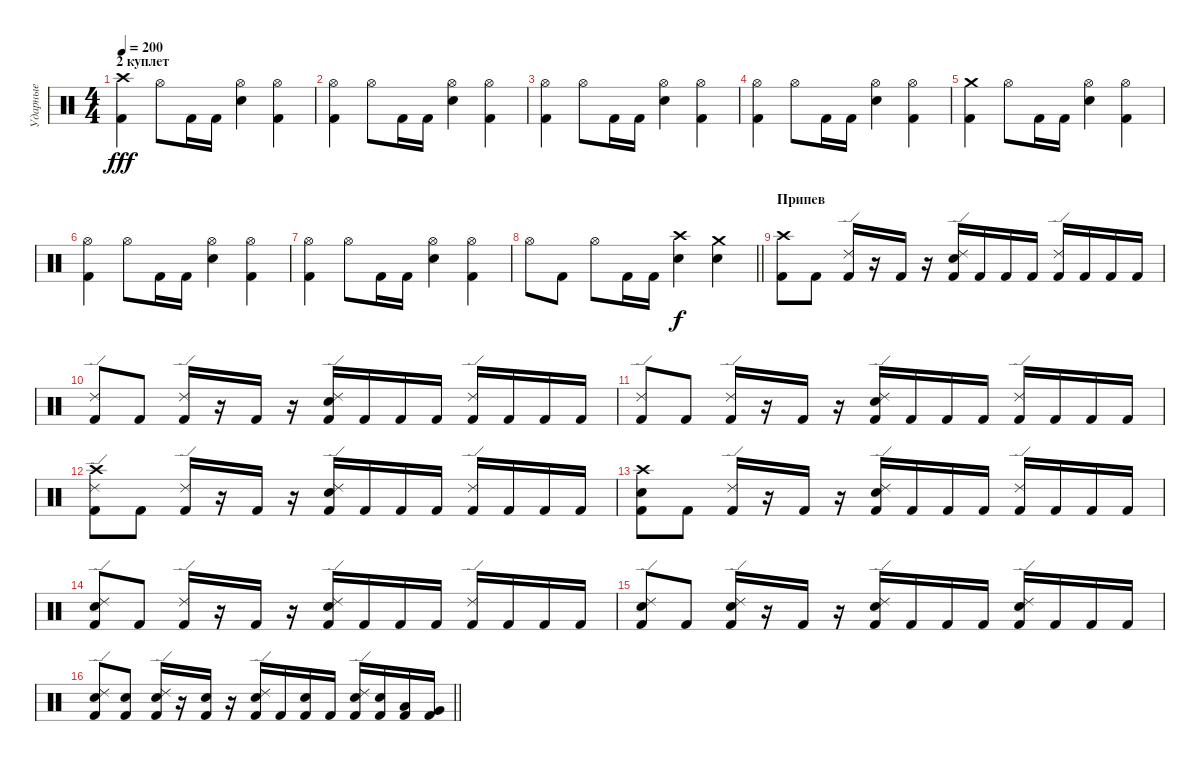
\track ("Ударные" "Ударные") {instrument percussion}
\staff {score}
\articulation defaults
\ts (4 4)
\section ("" "2 куплет")
\tempo 200
\clef neutral
\ks c
("Crash high (hit)" "Kick (hit) 2").4{dy fff} "Hi-Hat (open)".8 "Kick (hit) 2".16 "Kick (hit) 2".16 ("Hi-Hat (open)" "Snare (hit) 2").4 ("Hi-Hat (open)" "Kick (hit) 2").4 |
("Hi-Hat (open)" "Kick (hit) 2").4 "Hi-Hat (open)".8 "Kick (hit) 2".16 "Kick (hit) 2".16 ("Hi-Hat (open)" "Snare (hit) 2").4 ("Hi-Hat (open)" "Kick (hit) 2").4 |
("Hi-Hat (open)" "Kick (hit) 2").4 "Hi-Hat (open)".8 "Kick (hit) 2".16 "Kick (hit) 2".16 ("Hi-Hat (open)" "Snare (hit) 2").4 ("Hi-Hat (open)" "Kick (hit) 2").4 |
("Hi-Hat (open)" "Kick (hit) 2").4 "Hi-Hat (open)".8 "Kick (hit) 2".16 "Kick (hit) 2".16 ("Hi-Hat (open)" "Snare (hit) 2").4 ("Hi-Hat (open)" "Kick (hit) 2").4 |
("Crash medium (hit)" "Kick (hit) 2").4 "Hi-Hat (open)".8 "Kick (hit) 2".16 "Kick (hit) 2".16 ("Hi-Hat (open)" "Snare (hit) 2").4 ("Hi-Hat (open)" "Kick (hit) 2").4 |
("Hi-Hat (open)" "Kick (hit) 2").4 "Hi-Hat (open)".8 "Kick (hit) 2".16 "Kick (hit) 2".16 ("Hi-Hat (open)" "Snare (hit) 2").4 ("Hi-Hat (open)" "Kick (hit) 2").4 |
("Hi-Hat (open)" "Kick (hit) 2").4 "Hi-Hat (open)".8 "Kick (hit) 2".16 "Kick (hit) 2".16 ("Hi-Hat (open)" "Snare (hit) 2").4 ("Hi-Hat (open)" "Kick (hit) 2").4 |
\barLineRight lightlight "Hi-Hat (open)".8 "Kick (hit) 2".8 "Hi-Hat (open)".8 "Kick (hit) 2".16 "Kick (hit) 2".16
("Crash high (hit)" "Snare (hit) 2").4{dy f} ("Crash medium (hit)" "Snare (hit) 2").4 |
\section ("" "Припев")
("Crash high (hit)" "Kick (hit) 2").8 "Kick (hit) 2".8 ("Ride (edge) 2" "Kick (hit) 2").16 r.16 "Kick (hit) 2".16 r.16 ("Snare (hit) 2" "Ride (edge) 2" "Kick (hit) 2").16 "Kick (hit) 2".16 "Kick (hit) 2".16 "Kick (hit) 2".16 ("Ride (edge) 2" "Kick (hit) 2").16 "Kick (hit) 2".16 "Kick (hit) 2".16 "Kick (hit) 2".16 |
("Ride (edge) 2" "Kick (hit) 2").8 "Kick (hit) 2".8 ("Ride (edge) 2" "Kick (hit) 2").16 r.16 "Kick (hit) 2".16 r.16 ("Snare (hit) 2" "Ride (edge) 2" "Kick (hit) 2").16 "Kick (hit) 2".16 "Kick (hit) 2".16 "Kick (hit) 2".16 ("Ride (edge) 2" "Kick (hit) 2").16 "Kick (hit) 2".16 "Kick (hit) 2".16 "Kick (hit) 2".16 |
("Ride (edge) 2" "Kick (hit) 2").8 "Kick (hit) 2".8 ("Ride (edge) 2" "Kick (hit) 2").16 r.16 "Kick (hit) 2".16 r.16 ("Snare (hit) 2" "Ride (edge) 2" "Kick (hit) 2").16 "Kick (hit) 2".16 "Kick (hit) 2".16 "Kick (hit) 2".16 ("Ride (edge) 2" "Kick (hit) 2").16 "Kick (hit) 2".16 "Kick (hit) 2".16 "Kick (hit) 2".16 |
("Crash high (hit)" "Ride (edge) 2" "Kick (hit) 2").8 "Kick (hit) 2".8 ("Ride (edge) 2" "Kick (hit) 2").16 r.16 "Kick (hit) 2".16 r.16 ("Snare (hit) 2" "Ride (edge) 2" "Kick (hit) 2").16 "Kick (hit) 2".16 "Kick (hit) 2".16 "Kick (hit) 2".16 ("Ride (edge) 2" "Kick (hit) 2").16 "Kick (hit) 2".16 "Kick (hit) 2".16 "Kick (hit) 2".16 |
("Crash high (hit)" "Snare (hit) 2" "Kick (hit) 2").8 "Kick (hit) 2".8 ("Ride (edge) 2" "Kick (hit) 2").16 r.16 "Kick (hit) 2".16 r.16 ("Snare (hit) 2" "Ride (edge) 2" "Kick (hit) 2").16 "Kick (hit) 2".16 "Kick (hit) 2".16 "Kick (hit) 2".16 ("Ride (edge) 2" "Kick (hit) 2").16 "Kick (hit) 2".16 "Kick (hit) 2".16 "Kick (hit) 2".16 |
("Snare (hit) 2" "Ride (edge) 2" "Kick (hit) 2").8 "Kick (hit) 2".8 ("Ride (edge) 2" "Kick (hit) 2").16 r.16 "Kick (hit) 2".16 r.16 ("Snare (hit) 2" "Ride (edge) 2" "Kick (hit) 2").16 "Kick (hit) 2".16 "Kick (hit) 2".16 "Kick (hit) 2".16 ("Ride (edge) 2" "Kick (hit) 2").16 "Kick (hit) 2".16 "Kick (hit) 2".16 "Kick (hit) 2".16 |
("Snare (hit) 2" "Ride (edge) 2" "Kick (hit) 2").8 "Kick (hit) 2".8 ("Snare (hit) 2" "Ride (edge) 2" "Kick (hit) 2").16 r.16 "Kick (hit) 2".16 r.16 ("Snare (hit) 2" "Ride (edge) 2" "Kick (hit) 2").16 "Kick (hit) 2".16 "Kick (hit) 2".16 "Kick (hit) 2".16 ("Snare (hit) 2" "Ride (edge) 2" "Kick (hit) 2").16 "Kick (hit) 2".16 "Kick (hit) 2".16 "Kick (hit) 2".16 |
\barLineRight lightlight
("Snare (hit) 2" "Ride (edge) 2" "Kick (hit) 2").8 ("Snare (hit) 2" "Kick (hit) 2").8 ("Snare (hit) 2" "Ride (edge) 2" "Kick (hit) 2").16 r.16 ("Snare (hit) 2" "Kick (hit) 2").16 r.16 ("Snare (hit) 2" "Ride (edge) 2" "Kick (hit) 2").16 "Kick (hit) 2".16 ("Snare (hit) 2" "Kick (hit) 2").16 "Kick (hit) 2".16 ("Snare (hit) 2" "Ride (edge) 2" "Kick (hit) 2").16 ("Snare (hit) 2" "Kick (hit) 2").16 ("Low Tom (hit)" "Kick (hit) 2").16 ("Very Low Tom (hit)" "Kick (hit) 2").16
